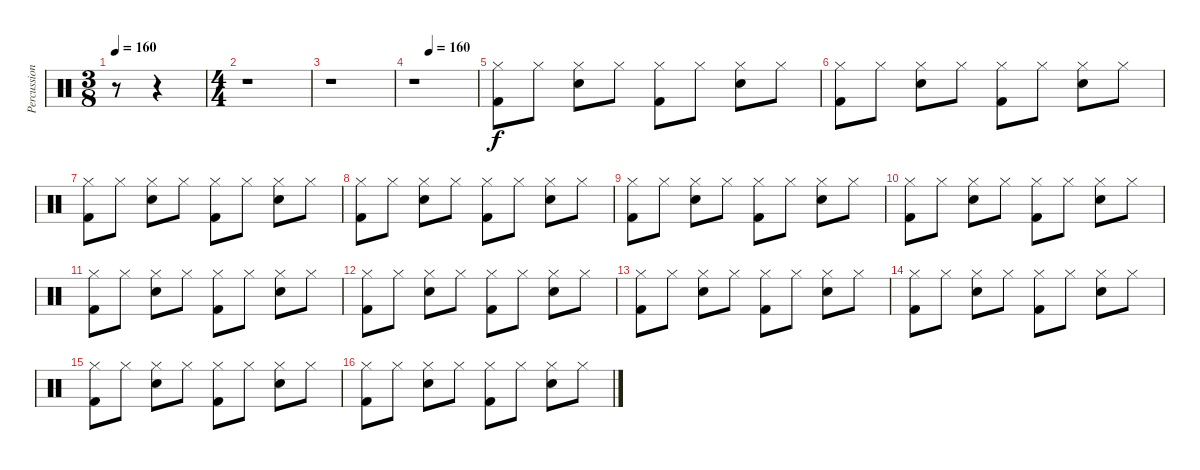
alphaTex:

\track ("Percussion" "Percussion") {instrument percussion}
\staff {score}
\articulation defaults
\ts (3 8)
\tempo 160
\tempo 100
\tempo 160
\clef neutral
\ks c
r.8{dy f} r.4 |
\ts (4 4)
r.1 |
r.1 |
\tempo (160 0.25)
r.1 |
("Hi-Hat (closed)" "Kick (hit) 2").8 "Hi-Hat (closed)".8 ("Hi-Hat (closed)" "Snare (hit) 2").8 "Hi-Hat (closed)".8 ("Hi-Hat (closed)" "Kick (hit) 2").8 "Hi-Hat (closed)".8 ("Hi-Hat (closed)" "Snare (hit) 2").8 "Hi-Hat (closed)".8 |
("Hi-Hat (closed)" "Kick (hit) 2").8 "Hi-Hat (closed)".8 ("Hi-Hat (closed)" "Snare (hit) 2").8 "Hi-Hat (closed)".8 ("Hi-Hat (closed)" "Kick (hit) 2").8 "Hi-Hat (closed)".8 ("Hi-Hat (closed)" "Snare (hit) 2").8 "Hi-Hat (closed)".8 |
("Hi-Hat (closed)" "Kick (hit) 2").8 "Hi-Hat (closed)".8 ("Hi-Hat (closed)" "Snare (hit) 2").8 "Hi-Hat (closed)".8 ("Hi-Hat (closed)" "Kick (hit) 2").8 "Hi-Hat (closed)".8 ("Hi-Hat (closed)" "Snare (hit) 2").8 "Hi-Hat (closed)".8 |
("Hi-Hat (closed)" "Kick (hit) 2").8 "Hi-Hat (closed)".8 ("Hi-Hat (closed)" "Snare (hit) 2").8 "Hi-Hat (closed)".8 ("Hi-Hat (closed)" "Kick (hit) 2").8 "Hi-Hat (closed)".8 ("Hi-Hat (closed)" "Snare (hit) 2").8 "Hi-Hat (closed)".8 |
("Hi-Hat (closed)" "Kick (hit) 2").8 "Hi-Hat (closed)".8 ("Hi-Hat (closed)" "Snare (hit) 2").8 "Hi-Hat (closed)".8 ("Hi-Hat (closed)" "Kick (hit) 2").8 "Hi-Hat (closed)".8 ("Hi-Hat (closed)" "Snare (hit) 2").8 "Hi-Hat (closed)".8 |
("Hi-Hat (closed)" "Kick (hit) 2").8 "Hi-Hat (closed)".8 ("Hi-Hat (closed)" "Snare (hit) 2").8 "Hi-Hat (closed)".8 ("Hi-Hat (closed)" "Kick (hit) 2").8 "Hi-Hat (closed)".8 ("Hi-Hat (closed)" "Snare (hit) 2").8 "Hi-Hat (closed)".8 |
("Hi-Hat (closed)" "Kick (hit) 2").8 "Hi-Hat (closed)".8 ("Hi-Hat (closed)" "Snare (hit) 2").8 "Hi-Hat (closed)".8 ("Hi-Hat (closed)" "Kick (hit) 2").8 "Hi-Hat (closed)".8 ("Hi-Hat (closed)" "Snare (hit) 2").8 "Hi-Hat (closed)".8 |
("Hi-Hat (closed)" "Kick (hit) 2").8 "Hi-Hat (closed)".8 ("Hi-Hat (closed)" "Snare (hit) 2").8 "Hi-Hat (closed)".8 ("Hi-Hat (closed)" "Kick (hit) 2").8 "Hi-Hat (closed)".8 ("Hi-Hat (closed)" "Snare (hit) 2").8 "Hi-Hat (closed)".8 |
("Hi-Hat (closed)" "Kick (hit) 2").8 "Hi-Hat (closed)".8 ("Hi-Hat (closed)" "Snare (hit) 2").8 "Hi-Hat (closed)".8 ("Hi-Hat (closed)" "Kick (hit) 2").8 "Hi-Hat (closed)".8 ("Hi-Hat (closed)" "Snare (hit) 2").8 "Hi-Hat (closed)".8 |
("Hi-Hat (closed)" "Kick (hit) 2").8 "Hi-Hat (closed)".8 ("Hi-Hat (closed)" "Snare (hit) 2").8 "Hi-Hat (closed)".8 ("Hi-Hat (closed)" "Kick (hit) 2").8 "Hi-Hat (closed)".8 ("Hi-Hat (closed)" "Snare (hit) 2").8 "Hi-Hat (closed)".8 |
("Hi-Hat (closed)" "Kick (hit) 2").8 "Hi-Hat (closed)".8 ("Hi-Hat (closed)" "Snare (hit) 2").8 "Hi-Hat (closed)".8 ("Hi-Hat (closed)" "Kick (hit) 2").8 "Hi-Hat (closed)".8 ("Hi-Hat (closed)" "Snare (hit) 2").8 "Hi-Hat (closed)".8 |
("Hi-Hat (closed)" "Kick (hit) 2").8 "Hi-Hat (closed)".8 ("Hi-Hat (closed)" "Snare (hit) 2").8 "Hi-Hat (closed)".8 ("Hi-Hat (closed)" "Kick (hit) 2").8 "Hi-Hat (closed)".8 ("Hi-Hat (closed)" "Snare (hit) 2").8 "Hi-Hat (closed)".8
